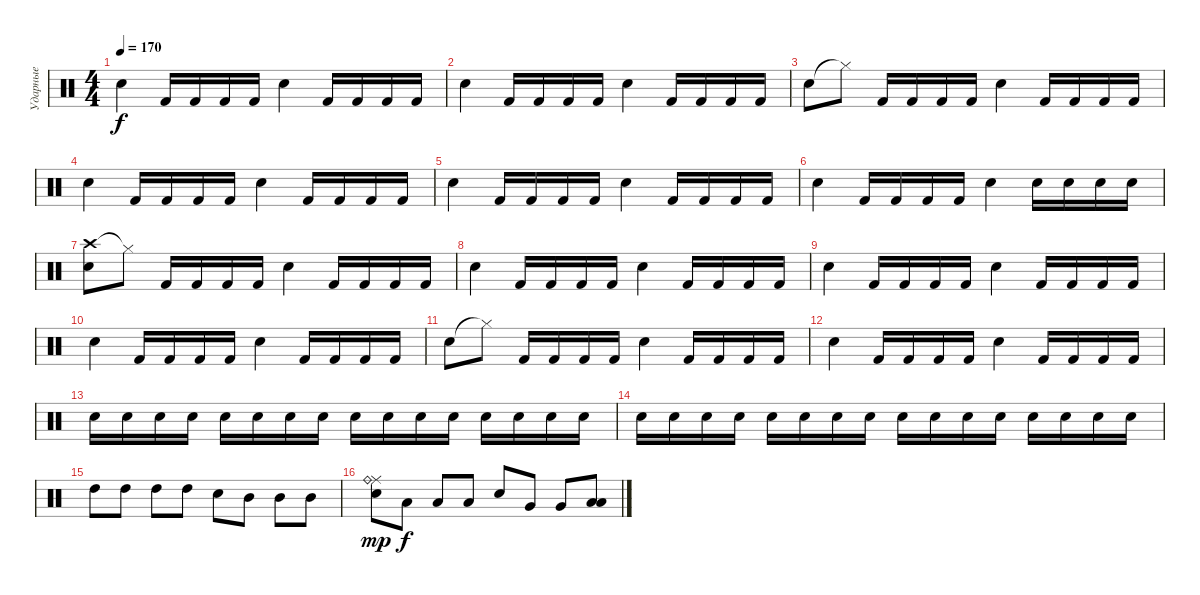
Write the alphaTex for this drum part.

\track ("Ударные" "Ударные") {instrument percussion}
\staff {score}
\articulation defaults
\ts (4 4)
\tempo 170
\clef neutral
\ks c "Electric Snare (hit)".4{dy f} "Kick (hit) 2".16 "Kick (hit) 2".16 "Kick (hit) 2".16 "Kick (hit) 2".16 "Electric Snare (hit)".4 "Kick (hit) 2".16 "Kick (hit) 2".16 "Kick (hit) 2".16 "Kick (hit) 2".16
|
"Electric Snare (hit)".4 "Kick (hit) 2".16 "Kick (hit) 2".16 "Kick (hit) 2".16 "Kick (hit) 2".16 "Electric Snare (hit)".4 "Kick (hit) 2".16 "Kick (hit) 2".16 "Kick (hit) 2".16 "Kick (hit) 2".16 |
"Electric Snare (hit)".8{volume 13} "Hi-Hat (closed)"{t}.8 "Kick (hit) 2".16 "Kick (hit) 2".16 "Kick (hit) 2".16 "Kick (hit) 2".16 "Electric Snare (hit)".4 "Kick (hit) 2".16 "Kick (hit) 2".16 "Kick (hit) 2".16 "Kick (hit) 2".16 |
"Electric Snare (hit)".4 "Kick (hit) 2".16 "Kick (hit) 2".16 "Kick (hit) 2".16 "Kick (hit) 2".16 "Electric Snare (hit)".4 "Kick (hit) 2".16 "Kick (hit) 2".16 "Kick (hit) 2".16 "Kick (hit) 2".16 |
"Electric Snare (hit)".4 "Kick (hit) 2".16 "Kick (hit) 2".16 "Kick (hit) 2".16 "Kick (hit) 2".16 "Electric Snare (hit)".4 "Kick (hit) 2".16 "Kick (hit) 2".16 "Kick (hit) 2".16 "Kick (hit) 2".16 |
"Electric Snare (hit)".4 "Kick (hit) 2".16 "Kick (hit) 2".16 "Kick (hit) 2".16 "Kick (hit) 2".16 "Electric Snare (hit)".4 "Electric Snare (hit)".16 "Electric Snare (hit)".16 "Electric Snare (hit)".16 "Electric Snare (hit)".16 |
("Crash high (hit)" "Snare (hit) 2").8{volume 13} "Hi-Hat (closed)"{t}.8 "Kick (hit) 2".16 "Kick (hit) 2".16 "Kick (hit) 2".16 "Kick (hit) 2".16 "Electric Snare (hit)".4 "Kick (hit) 2".16 "Kick (hit) 2".16 "Kick (hit) 2".16 "Kick (hit) 2".16 |
"Electric Snare (hit)".4 "Kick (hit) 2".16 "Kick (hit) 2".16 "Kick (hit) 2".16 "Kick (hit) 2".16 "Electric Snare (hit)".4 "Kick (hit) 2".16 "Kick (hit) 2".16 "Kick (hit) 2".16 "Kick (hit) 2".16 |
"Electric Snare (hit)".4 "Kick (hit) 2".16 "Kick (hit) 2".16 "Kick (hit) 2".16 "Kick (hit) 2".16 "Electric Snare (hit)".4 "Kick (hit) 2".16 "Kick (hit) 2".16 "Kick (hit) 2".16 "Kick (hit) 2".16 |
"Electric Snare (hit)".4 "Kick (hit) 2".16 "Kick (hit) 2".16 "Kick (hit) 2".16 "Kick (hit) 2".16 "Electric Snare (hit)".4 "Kick (hit) 2".16 "Kick (hit) 2".16 "Kick (hit) 2".16 "Kick (hit) 2".16 |
"Snare (hit) 2".8 "Hi-Hat (closed)"{t}.8 "Kick (hit) 2".16 "Kick (hit) 2".16 "Kick (hit) 2".16 "Kick (hit) 2".16 "Electric Snare (hit)".4 "Kick (hit) 2".16 "Kick (hit) 2".16 "Kick (hit) 2".16 "Kick (hit) 2".16 |
"Electric Snare (hit)".4 "Kick (hit) 2".16 "Kick (hit) 2".16 "Kick (hit) 2".16 "Kick (hit) 2".16 "Electric Snare (hit)".4 "Kick (hit) 2".16 "Kick (hit) 2".16 "Kick (hit) 2".16 "Kick (hit) 2".16 |
"Electric Snare (hit)".16{volume 6} "Electric Snare (hit)".16{volume 16} "Electric Snare (hit)".16 "Electric Snare (hit)".16 "Electric Snare (hit)".16 "Electric Snare (hit)".16 "Electric Snare (hit)".16 "Electric Snare (hit)".16 "Electric Snare (hit)".16 "Electric Snare (hit)".16 "Electric Snare (hit)".16 "Electric Snare (hit)".16 "Electric Snare (hit)".16 "Electric Snare (hit)".16 "Electric Snare (hit)".16 "Electric Snare (hit)".16 |
"Electric Snare (hit)".16 "Electric Snare (hit)".16 "Electric Snare (hit)".16 "Electric Snare (hit)".16 "Electric Snare (hit)".16 "Electric Snare (hit)".16 "Electric Snare (hit)".16 "Electric Snare (hit)".16 "Electric Snare (hit)".16 "Electric Snare (hit)".16 "Electric Snare (hit)".16 "Electric Snare (hit)".16 "Electric Snare (hit)".16 "Electric Snare (hit)".16 "Electric Snare (hit)".16 "Electric Snare (hit)".16 |
"High Tom (hit)".8 "High Tom (hit)".8 "High Tom (hit)".8 "High Tom (hit)".8 "Electric Snare (hit)".8 "Mid Tom (hit)".8 "Mid Tom (hit)".8 "Mid Tom (hit)".8 |
("Ride (middle)" "Ride (bell)" "Metronome (bell)").8{dy mp} "Low Tom (hit)".8{dy f} "Low Tom (hit)".8 "Low Tom (hit)".8 "Electric Snare (hit)".8 "Very Low Tom (hit)".8 "Very Low Tom (hit)".8 ("Low Floor Tom (hit)" "Low Floor Tom (hit)").8
